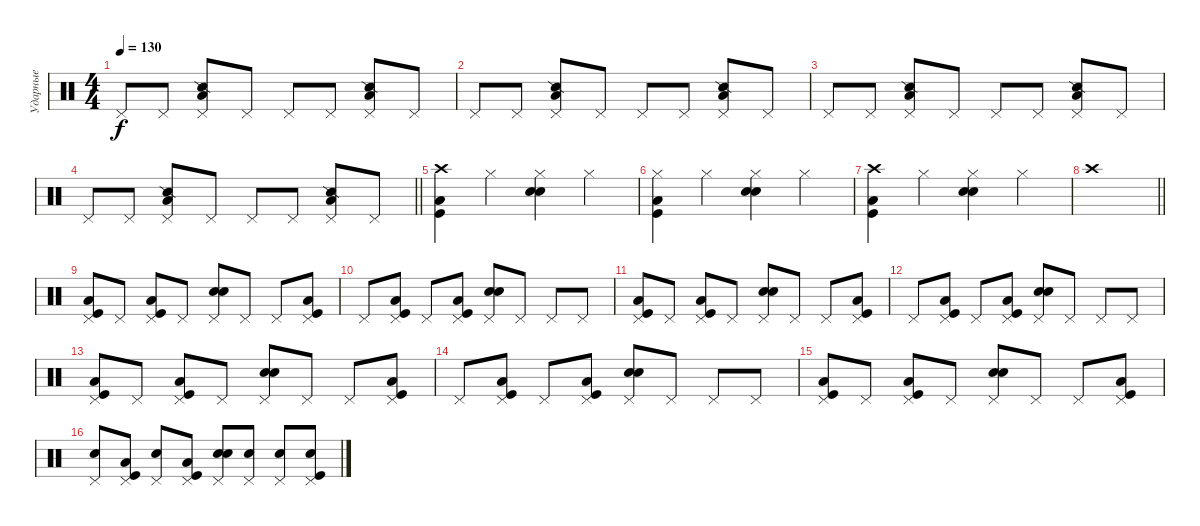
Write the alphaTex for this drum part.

\track ("Ударные" "Ударные") {instrument percussion}
\staff {score}
\articulation defaults
\ts (4 4)
\tempo 130
\clef neutral
\ks c "Pedal Hi-Hat (hit)".8{dy f} "Pedal Hi-Hat (hit)".8
("Pedal Hi-Hat (hit)" "Low Floor Tom (hit)" "Snare (side stick) 2").8 "Pedal Hi-Hat (hit)".8 "Pedal Hi-Hat (hit)".8 "Pedal Hi-Hat (hit)".8 ("Pedal Hi-Hat (hit)" "Low Floor Tom (hit)" "Snare (side stick) 2").8 "Pedal Hi-Hat (hit)".8 |
"Pedal Hi-Hat (hit)".8 "Pedal Hi-Hat (hit)".8 ("Pedal Hi-Hat (hit)" "Low Floor Tom (hit)" "Snare (side stick) 2").8 "Pedal Hi-Hat (hit)".8 "Pedal Hi-Hat (hit)".8 "Pedal Hi-Hat (hit)".8 ("Pedal Hi-Hat (hit)" "Low Floor Tom (hit)" "Snare (side stick) 2").8 "Pedal Hi-Hat (hit)".8 |
"Pedal Hi-Hat (hit)".8 "Pedal Hi-Hat (hit)".8 ("Pedal Hi-Hat (hit)" "Low Floor Tom (hit)" "Snare (side stick) 2").8 "Pedal Hi-Hat (hit)".8 "Pedal Hi-Hat (hit)".8 "Pedal Hi-Hat (hit)".8 ("Pedal Hi-Hat (hit)" "Low Floor Tom (hit)" "Snare (side stick) 2").8 "Pedal Hi-Hat (hit)".8 |
\barLineRight lightlight "Pedal Hi-Hat (hit)".8 "Pedal Hi-Hat (hit)".8
("Pedal Hi-Hat (hit)" "Low Floor Tom (hit)" "Snare (side stick) 2").8 "Pedal Hi-Hat (hit)".8 "Pedal Hi-Hat (hit)".8 "Pedal Hi-Hat (hit)".8 ("Pedal Hi-Hat (hit)" "Low Floor Tom (hit)" "Snare (side stick) 2").8 "Pedal Hi-Hat (hit)".8 |
("Crash high (hit)" "Low Tom (hit)" "Kick (hit)").4 "Hi-Hat (closed)".4 ("Hi-Hat (closed)" "Electric Snare (hit)" "Snare (hit) 2").4 "Hi-Hat (closed)".4 |
("Hi-Hat (closed)" "Low Tom (hit)" "Kick (hit)").4 "Hi-Hat (closed)".4 ("Hi-Hat (closed)" "Electric Snare (hit)" "Snare (hit) 2").4 "Hi-Hat (closed)".4 |
("Crash high (hit)" "Low Tom (hit)" "Kick (hit)").4 "Hi-Hat (closed)".4 ("Hi-Hat (closed)" "Electric Snare (hit)" "Snare (hit) 2").4 "Hi-Hat (closed)".4 |
\barLineRight lightlight "Crash high (hit)".1
|
("Pedal Hi-Hat (hit)" "Low Tom (hit)" "Kick (hit)").8 "Pedal Hi-Hat (hit)".8 ("Pedal Hi-Hat (hit)" "Low Tom (hit)" "Kick (hit)").8 "Pedal Hi-Hat (hit)".8 ("Pedal Hi-Hat (hit)" "Electric Snare (hit)" "Snare (hit) 2").8 "Pedal Hi-Hat (hit)".8 "Pedal Hi-Hat (hit)".8 ("Pedal Hi-Hat (hit)" "Low Tom (hit)" "Kick (hit)").8 |
"Pedal Hi-Hat (hit)".8 ("Pedal Hi-Hat (hit)" "Low Tom (hit)" "Kick (hit)").8 "Pedal Hi-Hat (hit)".8 ("Pedal Hi-Hat (hit)" "Low Tom (hit)" "Kick (hit)").8 ("Pedal Hi-Hat (hit)" "Electric Snare (hit)" "Snare (hit) 2").8 "Pedal Hi-Hat (hit)".8 "Pedal Hi-Hat (hit)".8 "Pedal Hi-Hat (hit)".8 |
("Pedal Hi-Hat (hit)" "Low Tom (hit)" "Kick (hit)").8 "Pedal Hi-Hat (hit)".8 ("Pedal Hi-Hat (hit)" "Low Tom (hit)" "Kick (hit)").8 "Pedal Hi-Hat (hit)".8 ("Pedal Hi-Hat (hit)" "Electric Snare (hit)" "Snare (hit) 2").8 "Pedal Hi-Hat (hit)".8 "Pedal Hi-Hat (hit)".8 ("Pedal Hi-Hat (hit)" "Low Tom (hit)" "Kick (hit)").8 |
"Pedal Hi-Hat (hit)".8 ("Pedal Hi-Hat (hit)" "Low Tom (hit)" "Kick (hit)").8 "Pedal Hi-Hat (hit)".8 ("Pedal Hi-Hat (hit)" "Low Tom (hit)" "Kick (hit)").8 ("Pedal Hi-Hat (hit)" "Electric Snare (hit)" "Snare (hit) 2").8 "Pedal Hi-Hat (hit)".8 "Pedal Hi-Hat (hit)".8 "Pedal Hi-Hat (hit)".8 |
("Pedal Hi-Hat (hit)" "Low Tom (hit)" "Kick (hit)").8 "Pedal Hi-Hat (hit)".8 ("Pedal Hi-Hat (hit)" "Low Tom (hit)" "Kick (hit)").8 "Pedal Hi-Hat (hit)".8 ("Pedal Hi-Hat (hit)" "Electric Snare (hit)" "Snare (hit) 2").8 "Pedal Hi-Hat (hit)".8 "Pedal Hi-Hat (hit)".8 ("Pedal Hi-Hat (hit)" "Low Tom (hit)" "Kick (hit)").8 |
"Pedal Hi-Hat (hit)".8 ("Pedal Hi-Hat (hit)" "Low Tom (hit)" "Kick (hit)").8 "Pedal Hi-Hat (hit)".8 ("Pedal Hi-Hat (hit)" "Low Tom (hit)" "Kick (hit)").8 ("Pedal Hi-Hat (hit)" "Electric Snare (hit)" "Snare (hit) 2").8 "Pedal Hi-Hat (hit)".8 "Pedal Hi-Hat (hit)".8 "Pedal Hi-Hat (hit)".8 |
("Pedal Hi-Hat (hit)" "Low Tom (hit)" "Kick (hit)").8 "Pedal Hi-Hat (hit)".8 ("Pedal Hi-Hat (hit)" "Low Tom (hit)" "Kick (hit)").8 "Pedal Hi-Hat (hit)".8 ("Pedal Hi-Hat (hit)" "Electric Snare (hit)" "Snare (hit) 2").8 "Pedal Hi-Hat (hit)".8 "Pedal Hi-Hat (hit)".8 ("Pedal Hi-Hat (hit)" "Low Tom (hit)" "Kick (hit)").8 |
("Pedal Hi-Hat (hit)" "Snare (hit) 2").8 ("Pedal Hi-Hat (hit)" "Low Tom (hit)" "Kick (hit)").8 ("Pedal Hi-Hat (hit)" "Snare (hit) 2").8 ("Pedal Hi-Hat (hit)" "Low Tom (hit)" "Kick (hit)").8 ("Pedal Hi-Hat (hit)" "Electric Snare (hit)" "Snare (hit) 2").8 ("Pedal Hi-Hat (hit)" "Snare (hit) 2").8 ("Pedal Hi-Hat (hit)" "Snare (hit) 2").8 ("Pedal Hi-Hat (hit)" "Snare (hit) 2" "Kick (hit)").8
